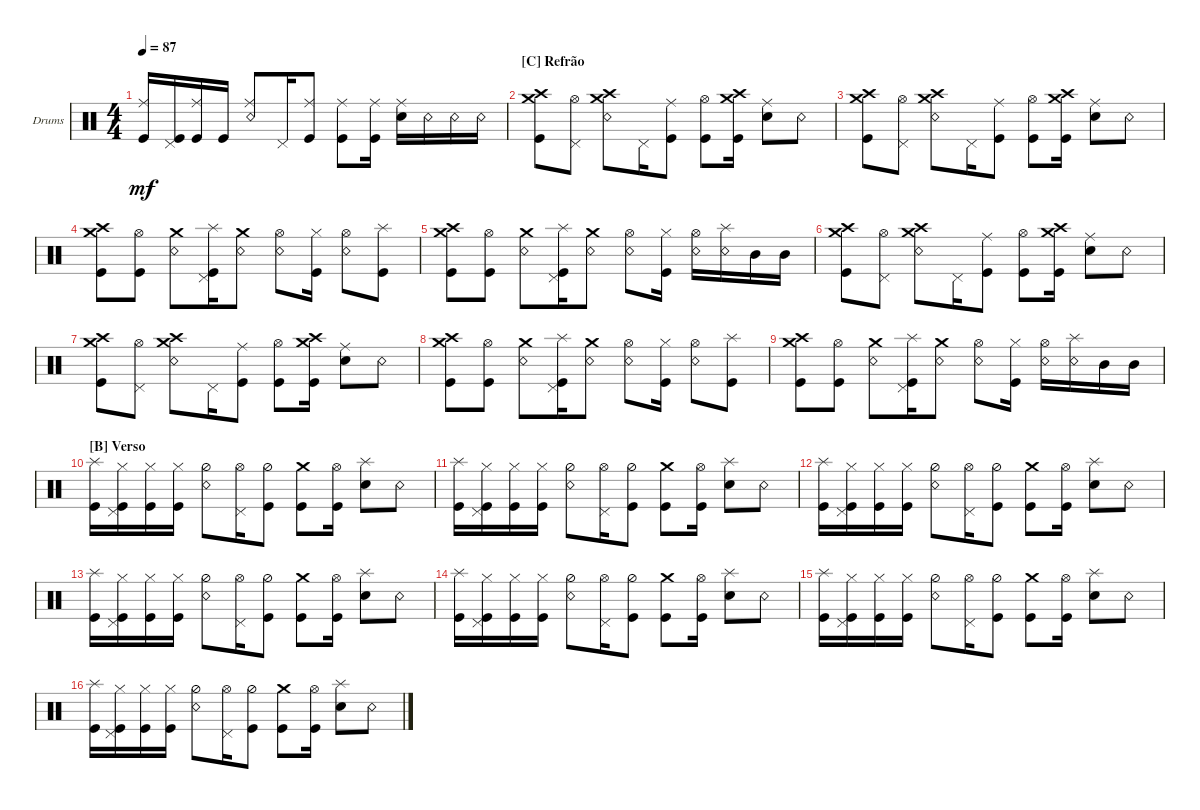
\defaultSystemsLayout 4
\bracketExtendMode groupsimilarinstruments
\firstSystemTrackNameOrientation horizontal
\otherSystemsTrackNameOrientation horizontal
\track ("Drumkit" "Drums") {multiBarRest instrument percussion}
\staff {score}
\articulation defaults
\ts (4 4)
\tempo 87
\clef neutral
\ks c
("Kick (hit)" "Ride (middle)").16{dy mf} ("Kick (hit)" "Pedal Hi-Hat (hit)").16 ("Kick (hit)" "Ride (middle)").16 "Kick (hit)".16 ("Ride (middle)" "Snare (rim shot)").8 "Pedal Hi-Hat (hit)".16 ("Ride (middle)" "Kick (hit)").8 ("Ride (middle)" "Kick (hit)").8 ("Ride (middle)" "Kick (hit)").16 ("Ride (middle)" "Snare (hit) 2").16 "Snare (rim shot)".16 "Snare (rim shot)".16 "Snare (rim shot)".16 |
\section ("C" "Refrão")
("Kick (hit)" "Crash high (hit)" "Crash medium (hit)").8 ("Hi-Hat (open)" "Pedal Hi-Hat (hit)").8 ("Snare (rim shot)" "Crash high (hit)" "Crash medium (hit)").8 "Pedal Hi-Hat (hit)".16 ("Ride (middle)" "Kick (hit)").8 ("Kick (hit)" "Hi-Hat (open)").8 ("Kick (hit)" "Crash high (hit)" "Crash medium (hit)").16 ("Ride (middle)" "Snare (hit) 2").8 "Snare (rim shot)".8 |
("Kick (hit)" "Crash high (hit)" "Crash medium (hit)").8 ("Hi-Hat (open)" "Pedal Hi-Hat (hit)").8 ("Snare (rim shot)" "Crash high (hit)" "Crash medium (hit)").8 "Pedal Hi-Hat (hit)".16 ("Ride (middle)" "Kick (hit)").8 ("Kick (hit)" "Hi-Hat (open)").8 ("Kick (hit)" "Crash high (hit)" "Crash medium (hit)").16 ("Ride (middle)" "Snare (hit) 2").8 "Snare (rim shot)".8 |
("Kick (hit)" "Crash high (hit)" "Crash medium (hit)").8 ("Kick (hit)" "Hi-Hat (open)").8 ("Snare (rim shot)" "Crash medium (hit)").8 ("Kick (hit)" "Pedal Hi-Hat (hit)" "Splash (hit)").16 ("Snare (rim shot)" "Crash medium (hit)").8 ("Snare (rim shot)" "Hi-Hat (open)").8 ("Kick (hit)" "Hi-Hat (closed)").16 ("Snare (rim shot)" "Hi-Hat (open)").8 ("Kick (hit)" "Splash (hit)").8 |
("Kick (hit)" "Crash high (hit)" "Crash medium (hit)").8 ("Kick (hit)" "Hi-Hat (open)").8 ("Snare (rim shot)" "Crash medium (hit)").8 ("Kick (hit)" "Pedal Hi-Hat (hit)" "Splash (hit)").16 ("Snare (rim shot)" "Crash medium (hit)").8 ("Snare (rim shot)" "Hi-Hat (open)").8 ("Kick (hit)" "Hi-Hat (closed)").16 ("Snare (rim shot)" "Hi-Hat (open)").16 ("Splash (hit)" "Snare (rim shot)").16 "Mid Tom (hit)".16 "Mid Tom (hit)".16 |
("Kick (hit)" "Crash high (hit)" "Crash medium (hit)").8 ("Hi-Hat (open)" "Pedal Hi-Hat (hit)").8 ("Snare (rim shot)" "Crash high (hit)" "Crash medium (hit)").8 "Pedal Hi-Hat (hit)".16 ("Ride (middle)" "Kick (hit)").8 ("Kick (hit)" "Hi-Hat (open)").8 ("Kick (hit)" "Crash high (hit)" "Crash medium (hit)").16 ("Ride (middle)" "Snare (hit) 2").8 "Snare (rim shot)".8 |
("Kick (hit)" "Crash high (hit)" "Crash medium (hit)").8 ("Hi-Hat (open)" "Pedal Hi-Hat (hit)").8 ("Snare (rim shot)" "Crash high (hit)" "Crash medium (hit)").8 "Pedal Hi-Hat (hit)".16 ("Ride (middle)" "Kick (hit)").8 ("Kick (hit)" "Hi-Hat (open)").8 ("Kick (hit)" "Crash high (hit)" "Crash medium (hit)").16 ("Ride (middle)" "Snare (hit) 2").8 "Snare (rim shot)".8 |
("Kick (hit)" "Crash high (hit)" "Crash medium (hit)").8 ("Kick (hit)" "Hi-Hat (open)").8 ("Snare (rim shot)" "Crash medium (hit)").8 ("Kick (hit)" "Pedal Hi-Hat (hit)" "Splash (hit)").16 ("Snare (rim shot)" "Crash medium (hit)").8 ("Snare (rim shot)" "Hi-Hat (open)").8 ("Kick (hit)" "Hi-Hat (closed)").16 ("Snare (rim shot)" "Hi-Hat (open)").8 ("Kick (hit)" "Splash (hit)").8 |
("Kick (hit)" "Crash high (hit)" "Crash medium (hit)").8 ("Kick (hit)" "Hi-Hat (open)").8 ("Snare (rim shot)" "Crash medium (hit)").8 ("Kick (hit)" "Pedal Hi-Hat (hit)" "Splash (hit)").16 ("Snare (rim shot)" "Crash medium (hit)").8 ("Snare (rim shot)" "Hi-Hat (open)").8 ("Kick (hit)" "Hi-Hat (closed)").16 ("Snare (rim shot)" "Hi-Hat (open)").16 ("Splash (hit)" "Snare (rim shot)").16 "Mid Tom (hit)".16 "Mid Tom (hit)".16 |
\section ("B" "Verso")
("Kick (hit)" "Splash (hit)").16 ("Kick (hit)" "Pedal Hi-Hat (hit)" "Hi-Hat (closed)").16 ("Kick (hit)" "Hi-Hat (closed)").16 ("Kick (hit)" "Hi-Hat (closed)").16 ("Snare (rim shot)" "Hi-Hat (half)").8 ("Pedal Hi-Hat (hit)" "Hi-Hat (open)").16 ("Kick (hit)" "Hi-Hat (half)").8 ("Kick (hit)" "Crash medium (hit)").8 ("Kick (hit)" "Hi-Hat (open)").16 ("Snare (hit) 2" "Splash (hit)").8 "Snare (rim shot)".8 |
("Kick (hit)" "Splash (hit)").16 ("Kick (hit)" "Pedal Hi-Hat (hit)" "Hi-Hat (closed)").16 ("Kick (hit)" "Hi-Hat (closed)").16 ("Kick (hit)" "Hi-Hat (closed)").16 ("Snare (rim shot)" "Hi-Hat (half)").8 ("Pedal Hi-Hat (hit)" "Hi-Hat (open)").16 ("Kick (hit)" "Hi-Hat (half)").8 ("Kick (hit)" "Crash medium (hit)").8 ("Kick (hit)" "Hi-Hat (open)").16 ("Snare (hit) 2" "Splash (hit)").8 "Snare (rim shot)".8 |
("Kick (hit)" "Splash (hit)").16 ("Kick (hit)" "Pedal Hi-Hat (hit)" "Hi-Hat (closed)").16 ("Kick (hit)" "Hi-Hat (closed)").16 ("Kick (hit)" "Hi-Hat (closed)").16 ("Snare (rim shot)" "Hi-Hat (half)").8 ("Pedal Hi-Hat (hit)" "Hi-Hat (open)").16 ("Kick (hit)" "Hi-Hat (half)").8 ("Kick (hit)" "Crash medium (hit)").8 ("Kick (hit)" "Hi-Hat (open)").16 ("Snare (hit) 2" "Splash (hit)").8 "Snare (rim shot)".8 |
("Kick (hit)" "Splash (hit)").16 ("Kick (hit)" "Pedal Hi-Hat (hit)" "Hi-Hat (closed)").16 ("Kick (hit)" "Hi-Hat (closed)").16 ("Kick (hit)" "Hi-Hat (closed)").16 ("Snare (rim shot)" "Hi-Hat (half)").8 ("Pedal Hi-Hat (hit)" "Hi-Hat (open)").16 ("Kick (hit)" "Hi-Hat (half)").8 ("Kick (hit)" "Crash medium (hit)").8 ("Kick (hit)" "Hi-Hat (open)").16 ("Snare (hit) 2" "Splash (hit)").8 "Snare (rim shot)".8 |
("Kick (hit)" "Splash (hit)").16 ("Kick (hit)" "Pedal Hi-Hat (hit)" "Hi-Hat (closed)").16 ("Kick (hit)" "Hi-Hat (closed)").16 ("Kick (hit)" "Hi-Hat (closed)").16 ("Snare (rim shot)" "Hi-Hat (half)").8 ("Pedal Hi-Hat (hit)" "Hi-Hat (open)").16 ("Kick (hit)" "Hi-Hat (half)").8 ("Kick (hit)" "Crash medium (hit)").8 ("Kick (hit)" "Hi-Hat (open)").16 ("Snare (hit) 2" "Splash (hit)").8 "Snare (rim shot)".8 |
("Kick (hit)" "Splash (hit)").16 ("Kick (hit)" "Pedal Hi-Hat (hit)" "Hi-Hat (closed)").16 ("Kick (hit)" "Hi-Hat (closed)").16 ("Kick (hit)" "Hi-Hat (closed)").16 ("Snare (rim shot)" "Hi-Hat (half)").8 ("Pedal Hi-Hat (hit)" "Hi-Hat (open)").16 ("Kick (hit)" "Hi-Hat (half)").8 ("Kick (hit)" "Crash medium (hit)").8 ("Kick (hit)" "Hi-Hat (open)").16 ("Snare (hit) 2" "Splash (hit)").8 "Snare (rim shot)".8 |
("Kick (hit)" "Splash (hit)").16 ("Kick (hit)" "Pedal Hi-Hat (hit)" "Hi-Hat (closed)").16 ("Kick (hit)" "Hi-Hat (closed)").16 ("Kick (hit)" "Hi-Hat (closed)").16 ("Snare (rim shot)" "Hi-Hat (half)").8 ("Pedal Hi-Hat (hit)" "Hi-Hat (open)").16 ("Kick (hit)" "Hi-Hat (half)").8 ("Kick (hit)" "Crash medium (hit)").8 ("Kick (hit)" "Hi-Hat (open)").16 ("Snare (hit) 2" "Splash (hit)").8 "Snare (rim shot)".8
